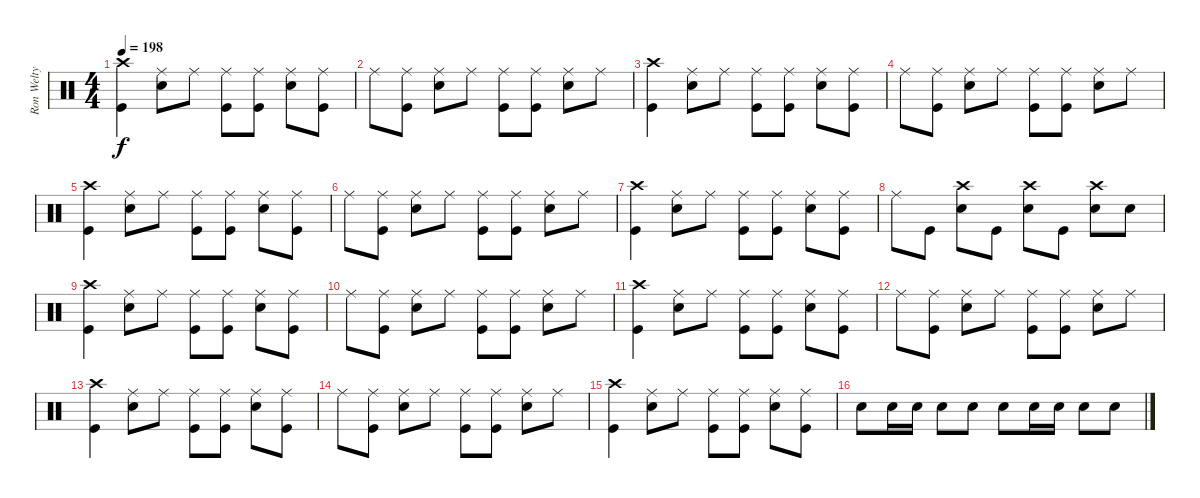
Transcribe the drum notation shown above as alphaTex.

\track ("Ron Welty" "Ron Welty") {instrument percussion}
\staff {score}
\articulation defaults
\ts (4 4)
\tempo 198
\clef neutral
\ks c
("Kick (hit)" "Crash high (hit)").4{dy f} ("Ride (middle)" "Snare (hit) 2").8 "Ride (middle)".8 ("Ride (middle)" "Kick (hit)").8 ("Ride (middle)" "Kick (hit)").8 ("Ride (middle)" "Snare (hit) 2").8 ("Ride (middle)" "Kick (hit)").8 |
"Ride (middle)".8 ("Kick (hit)" "Ride (middle)").8 ("Ride (middle)" "Snare (hit) 2").8 "Ride (middle)".8 ("Ride (middle)" "Kick (hit)").8 ("Kick (hit)" "Ride (middle)").8 ("Ride (middle)" "Snare (hit) 2").8 "Ride (middle)".8 |
("Kick (hit)" "Crash high (hit)").4 ("Ride (middle)" "Snare (hit) 2").8 "Ride (middle)".8 ("Ride (middle)" "Kick (hit)").8 ("Ride (middle)" "Kick (hit)").8 ("Ride (middle)" "Snare (hit) 2").8 ("Ride (middle)" "Kick (hit)").8 |
"Ride (middle)".8 ("Kick (hit)" "Ride (middle)").8 ("Ride (middle)" "Snare (hit) 2").8 "Ride (middle)".8 ("Ride (middle)" "Kick (hit)").8 ("Kick (hit)" "Ride (middle)").8 ("Ride (middle)" "Snare (hit) 2").8 "Ride (middle)".8 |
("Kick (hit)" "Crash high (hit)").4 ("Ride (middle)" "Snare (hit) 2").8 "Ride (middle)".8 ("Ride (middle)" "Kick (hit)").8 ("Ride (middle)" "Kick (hit)").8 ("Ride (middle)" "Snare (hit) 2").8 ("Ride (middle)" "Kick (hit)").8 |
"Ride (middle)".8 ("Kick (hit)" "Ride (middle)").8 ("Ride (middle)" "Snare (hit) 2").8 "Ride (middle)".8 ("Ride (middle)" "Kick (hit)").8 ("Kick (hit)" "Ride (middle)").8 ("Ride (middle)" "Snare (hit) 2").8 "Ride (middle)".8 |
("Kick (hit)" "Crash high (hit)").4 ("Ride (middle)" "Snare (hit) 2").8 "Ride (middle)".8 ("Ride (middle)" "Kick (hit)").8 ("Ride (middle)" "Kick (hit)").8 ("Ride (middle)" "Snare (hit) 2").8 ("Ride (middle)" "Kick (hit)").8 |
"Ride (middle)".8 "Kick (hit)".8 ("Crash high (hit)" "Snare (hit) 2").8 "Kick (hit)".8 ("Crash high (hit)" "Snare (hit) 2").8 "Kick (hit)".8 ("Crash high (hit)" "Snare (hit) 2").8 "Snare (hit) 2".8 |
("Kick (hit)" "Crash high (hit)").4 ("Ride (middle)" "Snare (hit) 2").8 "Ride (middle)".8 ("Ride (middle)" "Kick (hit)").8 ("Ride (middle)" "Kick (hit)").8 ("Ride (middle)" "Snare (hit) 2").8 ("Ride (middle)" "Kick (hit)").8 |
"Ride (middle)".8 ("Kick (hit)" "Ride (middle)").8 ("Ride (middle)" "Snare (hit) 2").8 "Ride (middle)".8 ("Ride (middle)" "Kick (hit)").8 ("Kick (hit)" "Ride (middle)").8 ("Ride (middle)" "Snare (hit) 2").8 "Ride (middle)".8 |
("Kick (hit)" "Crash high (hit)").4 ("Ride (middle)" "Snare (hit) 2").8 "Ride (middle)".8 ("Ride (middle)" "Kick (hit)").8 ("Ride (middle)" "Kick (hit)").8 ("Ride (middle)" "Snare (hit) 2").8 ("Ride (middle)" "Kick (hit)").8 |
"Ride (middle)".8 ("Kick (hit)" "Ride (middle)").8 ("Ride (middle)" "Snare (hit) 2").8 "Ride (middle)".8 ("Ride (middle)" "Kick (hit)").8 ("Kick (hit)" "Ride (middle)").8 ("Ride (middle)" "Snare (hit) 2").8 "Ride (middle)".8 |
("Kick (hit)" "Crash high (hit)").4 ("Ride (middle)" "Snare (hit) 2").8 "Ride (middle)".8 ("Ride (middle)" "Kick (hit)").8 ("Ride (middle)" "Kick (hit)").8 ("Ride (middle)" "Snare (hit) 2").8 ("Ride (middle)" "Kick (hit)").8 |
"Ride (middle)".8 ("Kick (hit)" "Ride (middle)").8 ("Ride (middle)" "Snare (hit) 2").8 "Ride (middle)".8 ("Ride (middle)" "Kick (hit)").8 ("Kick (hit)" "Ride (middle)").8 ("Ride (middle)" "Snare (hit) 2").8 "Ride (middle)".8 |
("Kick (hit)" "Crash high (hit)").4 ("Ride (middle)" "Snare (hit) 2").8 "Ride (middle)".8 ("Ride (middle)" "Kick (hit)").8 ("Ride (middle)" "Kick (hit)").8 ("Ride (middle)" "Snare (hit) 2").8 ("Ride (middle)" "Kick (hit)").8 |
"Snare (hit) 2".8 "Snare (hit) 2".16 "Snare (hit) 2".16 "Snare (hit) 2".8 "Snare (hit) 2".8 "Snare (hit) 2".8 "Snare (hit) 2".16 "Snare (hit) 2".16 "Snare (hit) 2".8 "Snare (hit) 2".8
